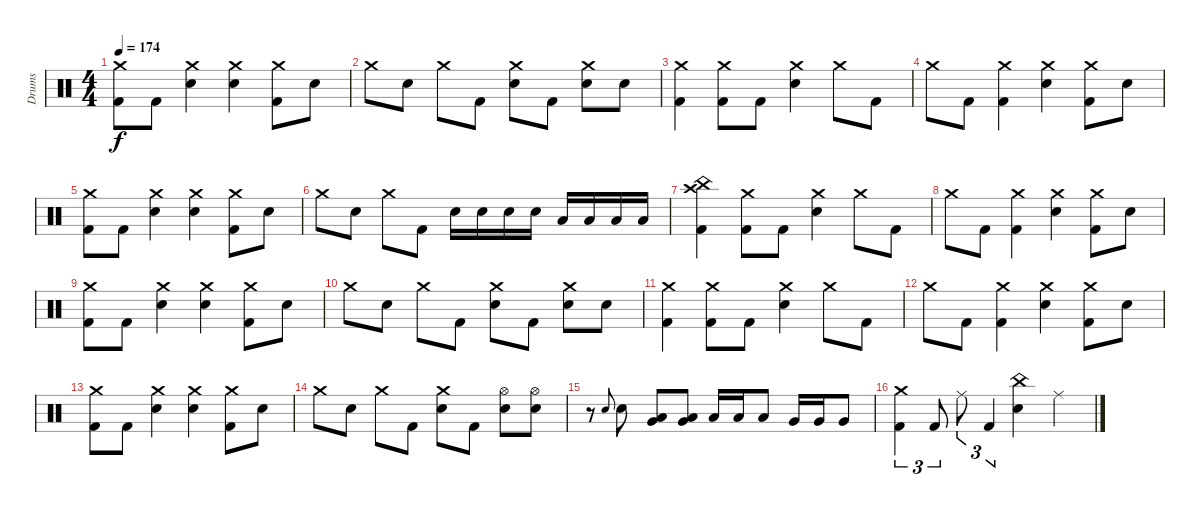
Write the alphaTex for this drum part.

\track ("Drums" "Drums") {instrument percussion}
\staff {score}
\articulation defaults
\ts (4 4)
\tempo 174
\clef neutral
\ks c
("Crash medium (hit)" "Kick (hit) 2").8{dy f} "Kick (hit) 2".8 ("Crash medium (hit)" "Electric Snare (hit)").4 ("Crash medium (hit)" "Electric Snare (hit)").4 ("Crash medium (hit)" "Kick (hit) 2").8 "Electric Snare (hit)".8 |
"Crash medium (hit)".8 "Electric Snare (hit)".8 "Crash medium (hit)".8 "Kick (hit) 2".8 ("Crash medium (hit)" "Electric Snare (hit)").8 "Kick (hit) 2".8 ("Crash medium (hit)" "Electric Snare (hit)").8 "Electric Snare (hit)".8 |
("Crash medium (hit)" "Kick (hit) 2").4 ("Crash medium (hit)" "Kick (hit) 2").8 "Kick (hit) 2".8 ("Crash medium (hit)" "Electric Snare (hit)").4 "Crash medium (hit)".8 "Kick (hit) 2".8 |
"Crash medium (hit)".8 "Kick (hit) 2".8 ("Crash medium (hit)" "Kick (hit) 2").4 ("Crash medium (hit)" "Electric Snare (hit)").4 ("Crash medium (hit)" "Kick (hit) 2").8 "Electric Snare (hit)".8 |
("Crash medium (hit)" "Kick (hit) 2").8 "Kick (hit) 2".8 ("Crash medium (hit)" "Electric Snare (hit)").4 ("Crash medium (hit)" "Electric Snare (hit)").4 ("Crash medium (hit)" "Kick (hit) 2").8 "Electric Snare (hit)".8 |
"Crash medium (hit)".8 "Electric Snare (hit)".8 "Crash medium (hit)".8 "Kick (hit) 2".8 "Electric Snare (hit)".16 "Electric Snare (hit)".16 "Electric Snare (hit)".16 "Electric Snare (hit)".16 "Low Tom (hit)".16 "Low Tom (hit)".16 "Low Tom (hit)".16 "Low Tom (hit)".16 |
("China (hit)" "Crash high (hit)" "Kick (hit) 2").4 ("Crash medium (hit)" "Kick (hit) 2").8 "Kick (hit) 2".8 ("Crash medium (hit)" "Electric Snare (hit)").4 "Crash medium (hit)".8 "Kick (hit) 2".8 |
"Crash medium (hit)".8 "Kick (hit) 2".8 ("Crash medium (hit)" "Kick (hit) 2").4 ("Crash medium (hit)" "Electric Snare (hit)").4 ("Crash medium (hit)" "Kick (hit) 2").8 "Electric Snare (hit)".8 |
("Crash medium (hit)" "Kick (hit) 2").8 "Kick (hit) 2".8 ("Crash medium (hit)" "Electric Snare (hit)").4 ("Crash medium (hit)" "Electric Snare (hit)").4 ("Crash medium (hit)" "Kick (hit) 2").8 "Electric Snare (hit)".8 |
"Crash medium (hit)".8 "Electric Snare (hit)".8 "Crash medium (hit)".8 "Kick (hit) 2".8 ("Crash medium (hit)" "Electric Snare (hit)").8 "Kick (hit) 2".8 ("Crash medium (hit)" "Electric Snare (hit)").8 "Electric Snare (hit)".8 |
("Crash medium (hit)" "Kick (hit) 2").4 ("Crash medium (hit)" "Kick (hit) 2").8 "Kick (hit) 2".8 ("Crash medium (hit)" "Electric Snare (hit)").4 "Crash medium (hit)".8 "Kick (hit) 2".8 |
"Crash medium (hit)".8 "Kick (hit) 2".8 ("Crash medium (hit)" "Kick (hit) 2").4 ("Crash medium (hit)" "Electric Snare (hit)").4 ("Crash medium (hit)" "Kick (hit) 2").8 "Electric Snare (hit)".8 |
("Crash medium (hit)" "Kick (hit) 2").8 "Kick (hit) 2".8 ("Crash medium (hit)" "Electric Snare (hit)").4 ("Crash medium (hit)" "Electric Snare (hit)").4 ("Crash medium (hit)" "Kick (hit) 2").8 "Electric Snare (hit)".8 |
"Crash medium (hit)".8 "Electric Snare (hit)".8 "Crash medium (hit)".8 "Kick (hit) 2".8 ("Crash medium (hit)" "Electric Snare (hit)").8 "Kick (hit) 2".8 ("Hi-Hat (open)" "Electric Snare (hit)").8 ("Hi-Hat (open)" "Electric Snare (hit)").8 |
r.8 "Electric Snare (hit)".8{gr onbeat} "Electric Snare (hit)".8 ("Low Tom (hit)" "Very Low Tom (hit)").8 ("Low Tom (hit)" "Very Low Tom (hit)").8 "Low Tom (hit)".16 "Low Tom (hit)".16 "Low Tom (hit)".8 "Very Low Tom (hit)".16 "Very Low Tom (hit)".16 "Very Low Tom (hit)".8 |
("Crash medium (hit)" "Kick (hit) 2").4{tu (3 2)} "Kick (hit) 2".8{tu (3 2)} "Ride (middle)".8{tu (3 2)} "Kick (hit) 2".4{tu (3 2)} ("China (hit)" "Electric Snare (hit)").4 "Ride (middle)".4
